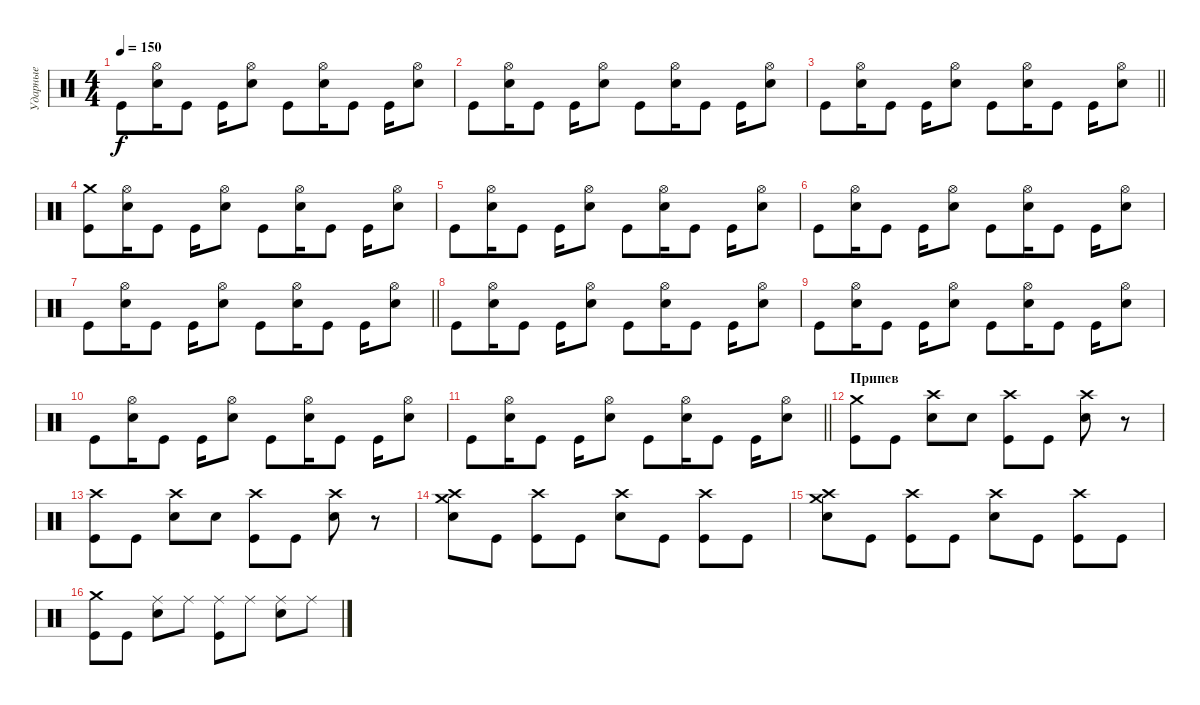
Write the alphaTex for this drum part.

\track ("Ударные" "Ударные") {instrument percussion}
\staff {score}
\articulation defaults
\ts (4 4)
\tempo 150
\clef neutral
\ks c "Kick (hit)".8{dy f}
("Hi-Hat (open)" "Electric Snare (hit)").16 "Kick (hit)".8 "Kick (hit)".16 ("Hi-Hat (open)" "Electric Snare (hit)").8 "Kick (hit)".8 ("Hi-Hat (open)" "Electric Snare (hit)").16 "Kick (hit)".8 "Kick (hit)".16 ("Hi-Hat (open)" "Electric Snare (hit)").8 |
"Kick (hit)".8 ("Hi-Hat (open)" "Electric Snare (hit)").16 "Kick (hit)".8 "Kick (hit)".16 ("Hi-Hat (open)" "Electric Snare (hit)").8 "Kick (hit)".8 ("Hi-Hat (open)" "Electric Snare (hit)").16 "Kick (hit)".8 "Kick (hit)".16 ("Hi-Hat (open)" "Electric Snare (hit)").8 |
\barLineRight lightlight "Kick (hit)".8
("Hi-Hat (open)" "Electric Snare (hit)").16 "Kick (hit)".8 "Kick (hit)".16 ("Hi-Hat (open)" "Electric Snare (hit)").8 "Kick (hit)".8 ("Hi-Hat (open)" "Electric Snare (hit)").16 "Kick (hit)".8 "Kick (hit)".16 ("Hi-Hat (open)" "Electric Snare (hit)").8 |
\section ("" " ")
("Crash medium (hit)" "Kick (hit)").8 ("Hi-Hat (open)" "Electric Snare (hit)").16 "Kick (hit)".8 "Kick (hit)".16 ("Hi-Hat (open)" "Electric Snare (hit)").8 "Kick (hit)".8 ("Hi-Hat (open)" "Electric Snare (hit)").16 "Kick (hit)".8 "Kick (hit)".16 ("Hi-Hat (open)" "Electric Snare (hit)").8 |
"Kick (hit)".8 ("Hi-Hat (open)" "Electric Snare (hit)").16 "Kick (hit)".8 "Kick (hit)".16 ("Hi-Hat (open)" "Electric Snare (hit)").8 "Kick (hit)".8 ("Hi-Hat (open)" "Electric Snare (hit)").16 "Kick (hit)".8 "Kick (hit)".16 ("Hi-Hat (open)" "Electric Snare (hit)").8 |
"Kick (hit)".8 ("Hi-Hat (open)" "Electric Snare (hit)").16 "Kick (hit)".8 "Kick (hit)".16 ("Hi-Hat (open)" "Electric Snare (hit)").8 "Kick (hit)".8 ("Hi-Hat (open)" "Electric Snare (hit)").16 "Kick (hit)".8 "Kick (hit)".16 ("Hi-Hat (open)" "Electric Snare (hit)").8 |
\barLineRight lightlight "Kick (hit)".8
("Hi-Hat (open)" "Electric Snare (hit)").16 "Kick (hit)".8 "Kick (hit)".16 ("Hi-Hat (open)" "Electric Snare (hit)").8 "Kick (hit)".8 ("Hi-Hat (open)" "Electric Snare (hit)").16 "Kick (hit)".8 "Kick (hit)".16 ("Hi-Hat (open)" "Electric Snare (hit)").8 |
"Kick (hit)".8 ("Hi-Hat (open)" "Electric Snare (hit)").16 "Kick (hit)".8 "Kick (hit)".16 ("Hi-Hat (open)" "Electric Snare (hit)").8 "Kick (hit)".8 ("Hi-Hat (open)" "Electric Snare (hit)").16 "Kick (hit)".8 "Kick (hit)".16 ("Hi-Hat (open)" "Electric Snare (hit)").8 |
"Kick (hit)".8 ("Hi-Hat (open)" "Electric Snare (hit)").16 "Kick (hit)".8 "Kick (hit)".16 ("Hi-Hat (open)" "Electric Snare (hit)").8 "Kick (hit)".8 ("Hi-Hat (open)" "Electric Snare (hit)").16 "Kick (hit)".8 "Kick (hit)".16 ("Hi-Hat (open)" "Electric Snare (hit)").8 |
"Kick (hit)".8 ("Hi-Hat (open)" "Electric Snare (hit)").16 "Kick (hit)".8 "Kick (hit)".16 ("Hi-Hat (open)" "Electric Snare (hit)").8 "Kick (hit)".8 ("Hi-Hat (open)" "Electric Snare (hit)").16 "Kick (hit)".8 "Kick (hit)".16 ("Hi-Hat (open)" "Electric Snare (hit)").8 |
\barLineRight lightlight "Kick (hit)".8
("Hi-Hat (open)" "Electric Snare (hit)").16 "Kick (hit)".8 "Kick (hit)".16 ("Hi-Hat (open)" "Electric Snare (hit)").8 "Kick (hit)".8 ("Hi-Hat (open)" "Electric Snare (hit)").16 "Kick (hit)".8 "Kick (hit)".16 ("Hi-Hat (open)" "Electric Snare (hit)").8 |
\section ("" "Припев")
("Crash medium (hit)" "Kick (hit)").8 "Kick (hit)".8 ("Crash high (hit)" "Electric Snare (hit)").8 "Electric Snare (hit)".8 ("Crash high (hit)" "Kick (hit)").8 "Kick (hit)".8 ("Crash high (hit)" "Electric Snare (hit)").8 r.8 |
("Crash high (hit)" "Kick (hit)").8 "Kick (hit)".8 ("Crash high (hit)" "Electric Snare (hit)").8 "Electric Snare (hit)".8 ("Crash high (hit)" "Kick (hit)").8 "Kick (hit)".8 ("Crash high (hit)" "Electric Snare (hit)").8 r.8 |
("Crash medium (hit)" "Crash high (hit)" "Electric Snare (hit)").8 "Kick (hit)".8 ("Crash high (hit)" "Kick (hit)").8 "Kick (hit)".8 ("Crash high (hit)" "Electric Snare (hit)").8 "Kick (hit)".8 ("Crash high (hit)" "Kick (hit)").8 "Kick (hit)".8 |
("Crash medium (hit)" "Crash high (hit)" "Electric Snare (hit)").8 "Kick (hit)".8 ("Crash high (hit)" "Kick (hit)").8 "Kick (hit)".8 ("Crash high (hit)" "Electric Snare (hit)").8 "Kick (hit)".8 ("Crash high (hit)" "Kick (hit)").8 "Kick (hit)".8 |
("Crash medium (hit)" "Kick (hit)").8 "Kick (hit)".8 ("Ride (middle)" "Electric Snare (hit)").8 "Ride (middle)".8 ("Ride (middle)" "Kick (hit)").8 "Ride (middle)".8 ("Ride (middle)" "Electric Snare (hit)").8 "Ride (middle)".8
